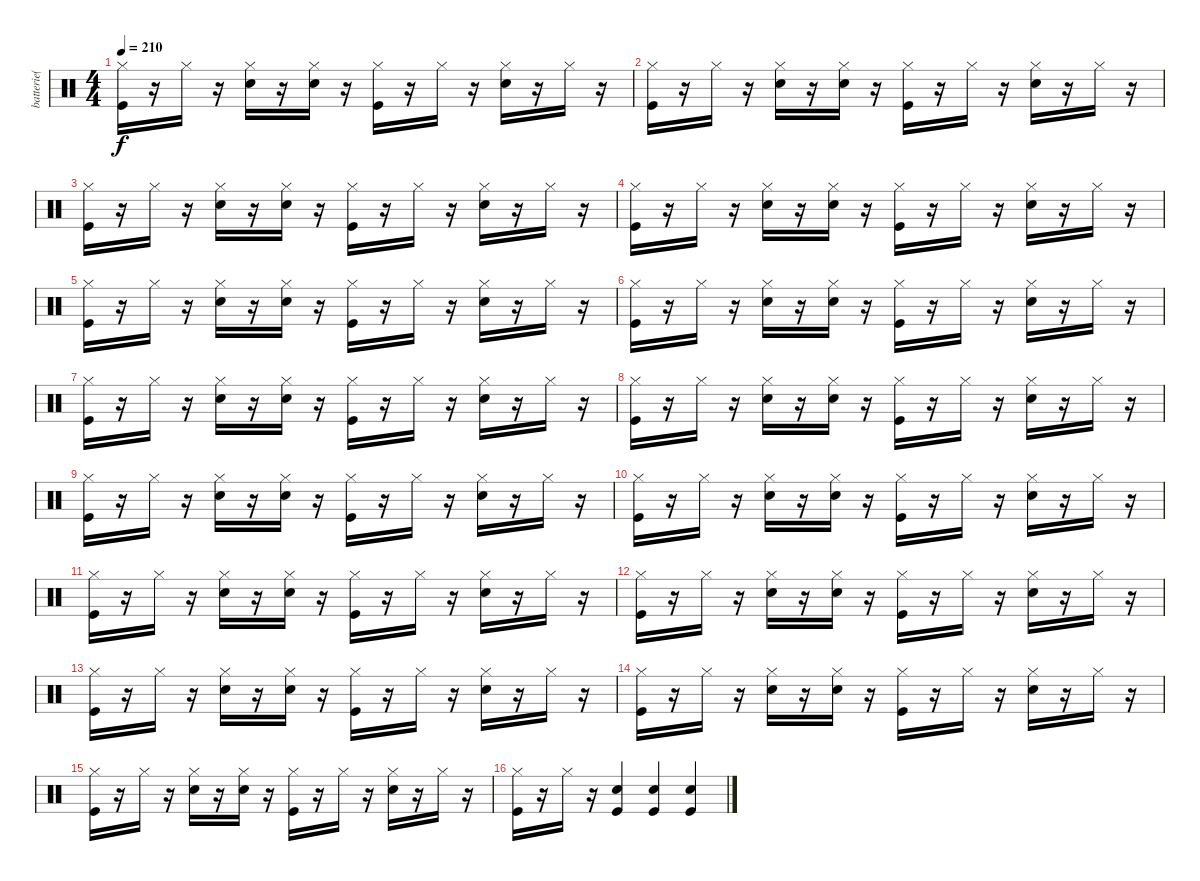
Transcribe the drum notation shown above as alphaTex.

\track ("batterie( Michael Davison )" "batterie( ") {instrument percussion}
\staff {score}
\articulation defaults
\ts (4 4)
\tempo 210
\clef neutral
\ks c
("Hi-Hat (closed)" "Kick (hit)").16{dy f} r.16 "Hi-Hat (closed)".16 r.16 ("Hi-Hat (closed)" "Snare (hit) 2").16 r.16 ("Hi-Hat (closed)" "Snare (hit) 2").16 r.16 ("Hi-Hat (closed)" "Kick (hit)").16 r.16 "Hi-Hat (closed)".16 r.16 ("Hi-Hat (closed)" "Snare (hit) 2").16 r.16 "Hi-Hat (closed)".16 r.16 |
("Hi-Hat (closed)" "Kick (hit)").16 r.16 "Hi-Hat (closed)".16 r.16 ("Hi-Hat (closed)" "Snare (hit) 2").16 r.16 ("Hi-Hat (closed)" "Snare (hit) 2").16 r.16 ("Hi-Hat (closed)" "Kick (hit)").16 r.16 "Hi-Hat (closed)".16 r.16 ("Hi-Hat (closed)" "Snare (hit) 2").16 r.16 "Hi-Hat (closed)".16 r.16 |
("Hi-Hat (closed)" "Kick (hit)").16 r.16 "Hi-Hat (closed)".16 r.16 ("Hi-Hat (closed)" "Snare (hit) 2").16 r.16 ("Hi-Hat (closed)" "Snare (hit) 2").16 r.16 ("Hi-Hat (closed)" "Kick (hit)").16 r.16 "Hi-Hat (closed)".16 r.16 ("Hi-Hat (closed)" "Snare (hit) 2").16 r.16 "Hi-Hat (closed)".16 r.16 |
("Hi-Hat (closed)" "Kick (hit)").16 r.16 "Hi-Hat (closed)".16 r.16 ("Hi-Hat (closed)" "Snare (hit) 2").16 r.16 ("Hi-Hat (closed)" "Snare (hit) 2").16 r.16 ("Hi-Hat (closed)" "Kick (hit)").16 r.16 "Hi-Hat (closed)".16 r.16 ("Hi-Hat (closed)" "Snare (hit) 2").16 r.16 "Hi-Hat (closed)".16 r.16 |
("Hi-Hat (closed)" "Kick (hit)").16 r.16 "Hi-Hat (closed)".16 r.16 ("Hi-Hat (closed)" "Snare (hit) 2").16 r.16 ("Hi-Hat (closed)" "Snare (hit) 2").16 r.16 ("Hi-Hat (closed)" "Kick (hit)").16 r.16 "Hi-Hat (closed)".16 r.16 ("Hi-Hat (closed)" "Snare (hit) 2").16 r.16 "Hi-Hat (closed)".16 r.16 |
("Hi-Hat (closed)" "Kick (hit)").16 r.16 "Hi-Hat (closed)".16 r.16 ("Hi-Hat (closed)" "Snare (hit) 2").16 r.16 ("Hi-Hat (closed)" "Snare (hit) 2").16 r.16 ("Hi-Hat (closed)" "Kick (hit)").16 r.16 "Hi-Hat (closed)".16 r.16 ("Hi-Hat (closed)" "Snare (hit) 2").16 r.16 "Hi-Hat (closed)".16 r.16 |
("Hi-Hat (closed)" "Kick (hit)").16 r.16 "Hi-Hat (closed)".16 r.16 ("Hi-Hat (closed)" "Snare (hit) 2").16 r.16 ("Hi-Hat (closed)" "Snare (hit) 2").16 r.16 ("Hi-Hat (closed)" "Kick (hit)").16 r.16 "Hi-Hat (closed)".16 r.16 ("Hi-Hat (closed)" "Snare (hit) 2").16 r.16 "Hi-Hat (closed)".16 r.16 |
("Hi-Hat (closed)" "Kick (hit)").16 r.16 "Hi-Hat (closed)".16 r.16 ("Hi-Hat (closed)" "Snare (hit) 2").16 r.16 ("Hi-Hat (closed)" "Snare (hit) 2").16 r.16 ("Hi-Hat (closed)" "Kick (hit)").16 r.16 "Hi-Hat (closed)".16 r.16 ("Hi-Hat (closed)" "Snare (hit) 2").16 r.16 "Hi-Hat (closed)".16 r.16 |
("Hi-Hat (closed)" "Kick (hit)").16 r.16 "Hi-Hat (closed)".16 r.16 ("Hi-Hat (closed)" "Snare (hit) 2").16 r.16 ("Hi-Hat (closed)" "Snare (hit) 2").16 r.16 ("Hi-Hat (closed)" "Kick (hit)").16 r.16 "Hi-Hat (closed)".16 r.16 ("Hi-Hat (closed)" "Snare (hit) 2").16 r.16 "Hi-Hat (closed)".16 r.16 |
("Hi-Hat (closed)" "Kick (hit)").16 r.16 "Hi-Hat (closed)".16 r.16 ("Hi-Hat (closed)" "Snare (hit) 2").16 r.16 ("Hi-Hat (closed)" "Snare (hit) 2").16 r.16 ("Hi-Hat (closed)" "Kick (hit)").16 r.16 "Hi-Hat (closed)".16 r.16 ("Hi-Hat (closed)" "Snare (hit) 2").16 r.16 "Hi-Hat (closed)".16 r.16 |
("Hi-Hat (closed)" "Kick (hit)").16 r.16 "Hi-Hat (closed)".16 r.16 ("Hi-Hat (closed)" "Snare (hit) 2").16 r.16 ("Hi-Hat (closed)" "Snare (hit) 2").16 r.16 ("Hi-Hat (closed)" "Kick (hit)").16 r.16 "Hi-Hat (closed)".16 r.16 ("Hi-Hat (closed)" "Snare (hit) 2").16 r.16 "Hi-Hat (closed)".16 r.16 |
("Hi-Hat (closed)" "Kick (hit)").16 r.16 "Hi-Hat (closed)".16 r.16 ("Hi-Hat (closed)" "Snare (hit) 2").16 r.16 ("Hi-Hat (closed)" "Snare (hit) 2").16 r.16 ("Hi-Hat (closed)" "Kick (hit)").16 r.16 "Hi-Hat (closed)".16 r.16 ("Hi-Hat (closed)" "Snare (hit) 2").16 r.16 "Hi-Hat (closed)".16 r.16 |
("Hi-Hat (closed)" "Kick (hit)").16 r.16 "Hi-Hat (closed)".16 r.16 ("Hi-Hat (closed)" "Snare (hit) 2").16 r.16 ("Hi-Hat (closed)" "Snare (hit) 2").16 r.16 ("Hi-Hat (closed)" "Kick (hit)").16 r.16 "Hi-Hat (closed)".16 r.16 ("Hi-Hat (closed)" "Snare (hit) 2").16 r.16 "Hi-Hat (closed)".16 r.16 |
("Hi-Hat (closed)" "Kick (hit)").16 r.16 "Hi-Hat (closed)".16 r.16 ("Hi-Hat (closed)" "Snare (hit) 2").16 r.16 ("Hi-Hat (closed)" "Snare (hit) 2").16 r.16 ("Hi-Hat (closed)" "Kick (hit)").16 r.16 "Hi-Hat (closed)".16 r.16 ("Hi-Hat (closed)" "Snare (hit) 2").16 r.16 "Hi-Hat (closed)".16 r.16 |
("Hi-Hat (closed)" "Kick (hit)").16 r.16 "Hi-Hat (closed)".16 r.16 ("Hi-Hat (closed)" "Snare (hit) 2").16 r.16 ("Hi-Hat (closed)" "Snare (hit) 2").16 r.16 ("Hi-Hat (closed)" "Kick (hit)").16 r.16 "Hi-Hat (closed)".16 r.16 ("Hi-Hat (closed)" "Snare (hit) 2").16 r.16 "Hi-Hat (closed)".16 r.16 |
("Hi-Hat (closed)" "Kick (hit)").16 r.16 "Hi-Hat (closed)".16 r.16 ("Snare (hit) 2" "Kick (hit)").4 ("Snare (hit) 2" "Kick (hit)").4 ("Snare (hit) 2" "Kick (hit)").4
